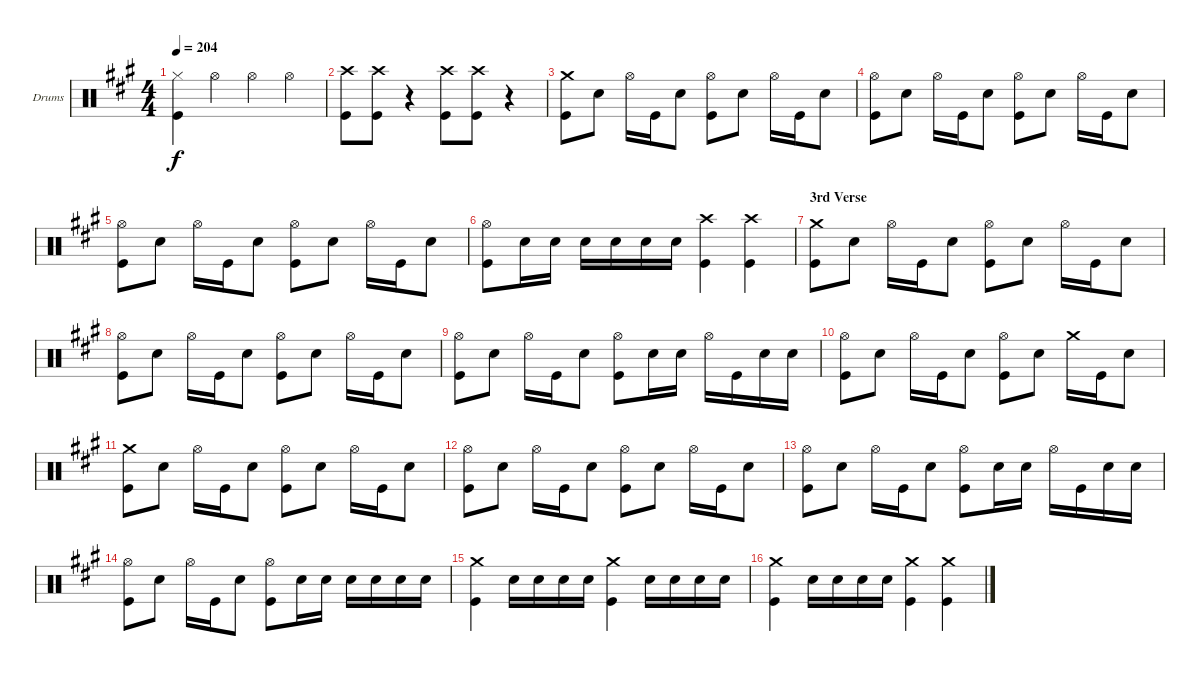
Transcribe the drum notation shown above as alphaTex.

\bracketExtendMode groupsimilarinstruments
\firstSystemTrackNameOrientation horizontal
\otherSystemsTrackNameOrientation horizontal
\track ("Drumkit" "Drums") {instrument percussion}
\staff {score}
\articulation defaults
\ts (4 4)
\tempo 204
\clef neutral
\ks a
("Hi-Hat (closed)" "Kick (hit)").4{dy f} "Hi-Hat (open)".4 "Hi-Hat (open)".4 "Hi-Hat (open)".4 |
("Crash high (hit)" "Kick (hit)").8 ("Crash high (hit)" "Kick (hit)").8 r.4 ("Crash high (hit)" "Kick (hit)").8 ("Crash high (hit)" "Kick (hit)").8 r.4 |
("Crash medium (hit)" "Kick (hit)").8 "Snare (hit) 2".8 "Hi-Hat (open)".16 "Kick (hit)".16 "Snare (hit) 2".8 ("Hi-Hat (open)" "Kick (hit)").8 "Snare (hit) 2".8 "Hi-Hat (open)".16 "Kick (hit)".16 "Snare (hit) 2".8 |
("Hi-Hat (open)" "Kick (hit)").8 "Snare (hit) 2".8 "Hi-Hat (open)".16 "Kick (hit)".16 "Snare (hit) 2".8 ("Hi-Hat (open)" "Kick (hit)").8 "Snare (hit) 2".8 "Hi-Hat (open)".16 "Kick (hit)".16 "Snare (hit) 2".8 |
("Hi-Hat (open)" "Kick (hit)").8 "Snare (hit) 2".8 "Hi-Hat (open)".16 "Kick (hit)".16 "Snare (hit) 2".8 ("Hi-Hat (open)" "Kick (hit)").8 "Snare (hit) 2".8 "Hi-Hat (open)".16 "Kick (hit)".16 "Snare (hit) 2".8 |
("Hi-Hat (open)" "Kick (hit)").8 "Snare (hit) 2".16 "Snare (hit) 2".16 "Snare (hit) 2".16 "Snare (hit) 2".16 "Snare (hit) 2".16 "Snare (hit) 2".16 ("Crash high (hit)" "Kick (hit)").4 ("Crash high (hit)" "Kick (hit)").4 |
\section ("" "3rd Verse")
("Crash medium (hit)" "Kick (hit)").8 "Snare (hit) 2".8 "Hi-Hat (open)".16 "Kick (hit)".16 "Snare (hit) 2".8 ("Hi-Hat (open)" "Kick (hit)").8 "Snare (hit) 2".8 "Hi-Hat (open)".16 "Kick (hit)".16 "Snare (hit) 2".8 |
("Hi-Hat (open)" "Kick (hit)").8 "Snare (hit) 2".8 "Hi-Hat (open)".16 "Kick (hit)".16 "Snare (hit) 2".8 ("Hi-Hat (open)" "Kick (hit)").8 "Snare (hit) 2".8 "Hi-Hat (open)".16 "Kick (hit)".16 "Snare (hit) 2".8 |
("Hi-Hat (open)" "Kick (hit)").8 "Snare (hit) 2".8 "Hi-Hat (open)".16 "Kick (hit)".16 "Snare (hit) 2".8 ("Hi-Hat (open)" "Kick (hit)").8 "Snare (hit) 2".16 "Snare (hit) 2".16 "Hi-Hat (open)".16 "Kick (hit)".16 "Snare (hit) 2".16 "Snare (hit) 2".16 |
("Hi-Hat (open)" "Kick (hit)").8 "Snare (hit) 2".8 "Hi-Hat (open)".16 "Kick (hit)".16 "Snare (hit) 2".8 ("Hi-Hat (open)" "Kick (hit)").8 "Snare (hit) 2".8 "Crash medium (hit)".16 "Kick (hit)".16 "Snare (hit) 2".8 |
("Crash medium (hit)" "Kick (hit)").8 "Snare (hit) 2".8 "Hi-Hat (open)".16 "Kick (hit)".16 "Snare (hit) 2".8 ("Hi-Hat (open)" "Kick (hit)").8 "Snare (hit) 2".8 "Hi-Hat (open)".16 "Kick (hit)".16 "Snare (hit) 2".8 |
("Hi-Hat (open)" "Kick (hit)").8 "Snare (hit) 2".8 "Hi-Hat (open)".16 "Kick (hit)".16 "Snare (hit) 2".8 ("Hi-Hat (open)" "Kick (hit)").8 "Snare (hit) 2".8 "Hi-Hat (open)".16 "Kick (hit)".16 "Snare (hit) 2".8 |
("Hi-Hat (open)" "Kick (hit)").8 "Snare (hit) 2".8 "Hi-Hat (open)".16 "Kick (hit)".16 "Snare (hit) 2".8 ("Hi-Hat (open)" "Kick (hit)").8 "Snare (hit) 2".16 "Snare (hit) 2".16 "Hi-Hat (open)".16 "Kick (hit)".16 "Snare (hit) 2".16 "Snare (hit) 2".16 |
("Hi-Hat (open)" "Kick (hit)").8 "Snare (hit) 2".8 "Hi-Hat (open)".16 "Kick (hit)".16 "Snare (hit) 2".8 ("Hi-Hat (open)" "Kick (hit)").8 "Snare (hit) 2".16 "Snare (hit) 2".16 "Snare (hit) 2".16 "Snare (hit) 2".16 "Snare (hit) 2".16 "Snare (hit) 2".16 |
("Crash medium (hit)" "Kick (hit)").4 "Snare (hit) 2".16 "Snare (hit) 2".16 "Snare (hit) 2".16 "Snare (hit) 2".16 ("Crash medium (hit)" "Kick (hit)").4 "Snare (hit) 2".16 "Snare (hit) 2".16 "Snare (hit) 2".16 "Snare (hit) 2".16 |
("Crash medium (hit)" "Kick (hit)").4 "Snare (hit) 2".16 "Snare (hit) 2".16 "Snare (hit) 2".16 "Snare (hit) 2".16 ("Crash medium (hit)" "Kick (hit)").4 ("Crash medium (hit)" "Kick (hit)").4
